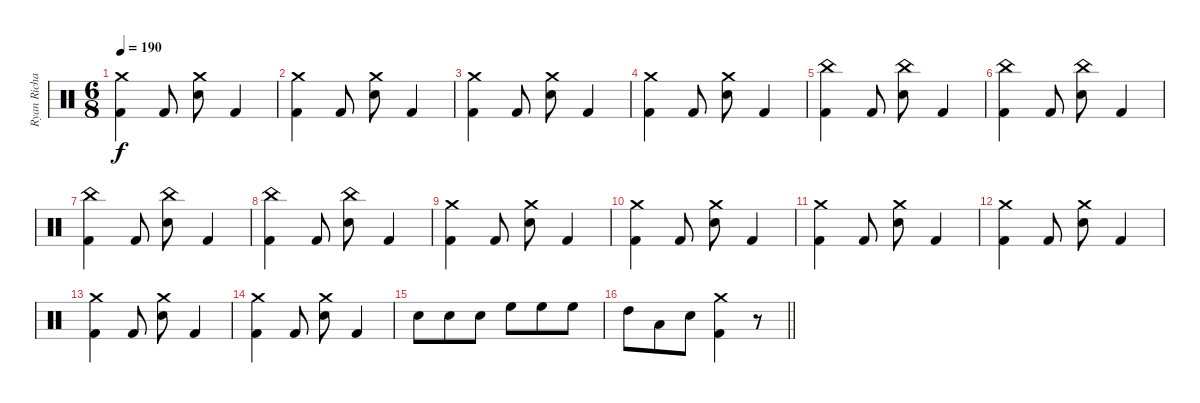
\track ("Ryan Richards" "Ryan Richa") {instrument percussion bank 127}
\staff {score}
\articulation defaults
\ts (6 8)
\tempo 190
\clef neutral
\ks c
("Crash medium (hit)" "Kick (hit) 2").4{dy f} "Kick (hit) 2".8 ("Crash medium (hit)" "Snare (hit) 2").8 "Kick (hit) 2".4 |
("Crash medium (hit)" "Kick (hit) 2").4 "Kick (hit) 2".8 ("Crash medium (hit)" "Snare (hit) 2").8 "Kick (hit) 2".4 |
("Crash medium (hit)" "Kick (hit) 2").4 "Kick (hit) 2".8 ("Crash medium (hit)" "Snare (hit) 2").8 "Kick (hit) 2".4 |
("Crash medium (hit)" "Kick (hit) 2").4 "Kick (hit) 2".8 ("Crash medium (hit)" "Snare (hit) 2").8 "Kick (hit) 2".4 |
("China (hit)" "Kick (hit) 2").4 "Kick (hit) 2".8 ("China (hit)" "Snare (hit) 2").8 "Kick (hit) 2".4 |
("China (hit)" "Kick (hit) 2").4 "Kick (hit) 2".8 ("China (hit)" "Snare (hit) 2").8 "Kick (hit) 2".4 |
("China (hit)" "Kick (hit) 2").4 "Kick (hit) 2".8 ("China (hit)" "Snare (hit) 2").8 "Kick (hit) 2".4 |
("China (hit)" "Kick (hit) 2").4 "Kick (hit) 2".8 ("China (hit)" "Snare (hit) 2").8 "Kick (hit) 2".4 |
("Crash medium (hit)" "Kick (hit) 2").4 "Kick (hit) 2".8 ("Crash medium (hit)" "Snare (hit) 2").8 "Kick (hit) 2".4 |
("Crash medium (hit)" "Kick (hit) 2").4 "Kick (hit) 2".8 ("Crash medium (hit)" "Snare (hit) 2").8 "Kick (hit) 2".4 |
("Crash medium (hit)" "Kick (hit) 2").4 "Kick (hit) 2".8 ("Crash medium (hit)" "Snare (hit) 2").8 "Kick (hit) 2".4 |
("Crash medium (hit)" "Kick (hit) 2").4 "Kick (hit) 2".8 ("Crash medium (hit)" "Snare (hit) 2").8 "Kick (hit) 2".4 |
("Crash medium (hit)" "Kick (hit) 2").4 "Kick (hit) 2".8 ("Crash medium (hit)" "Snare (hit) 2").8 "Kick (hit) 2".4 |
("Crash medium (hit)" "Kick (hit) 2").4 "Kick (hit) 2".8 ("Crash medium (hit)" "Snare (hit) 2").8 "Kick (hit) 2".4 |
"Snare (hit) 2".8 "Snare (hit) 2".8 "Snare (hit) 2".8 "High Floor Tom (hit)".8 "High Floor Tom (hit)".8 "High Floor Tom (hit)".8 |
\barLineRight lightlight "High Tom (hit)".8 "Low Tom (hit)".8 "Snare (hit) 2".8
("Crash medium (hit)" "Kick (hit) 2").4 r.8
